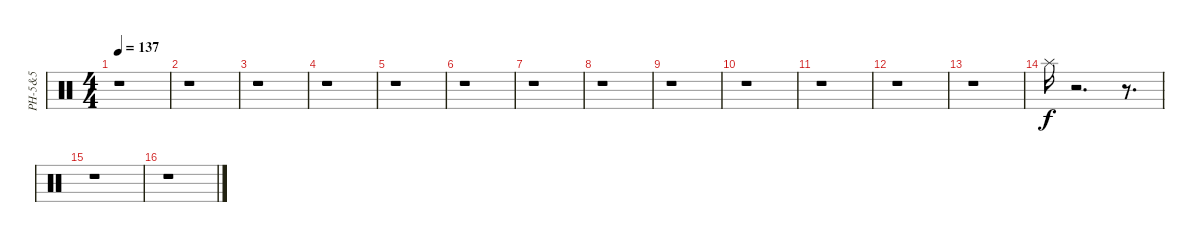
\track ("PH-5&5" "PH-5&5") {instrument percussion}
\staff {score}
\articulation defaults
\ts (4 4)
\tempo 137
\clef neutral
\ks c
r.1{dy ff} |
r.1 |
r.1 |
r.1 |
r.1 |
r.1 |
r.1 |
r.1 |
r.1 |
r.1 |
r.1 |
r.1 |
r.1 |
"Splash (hit)".16{dy f} r.2{d} r.8{d} |
r.1 |
r.1
